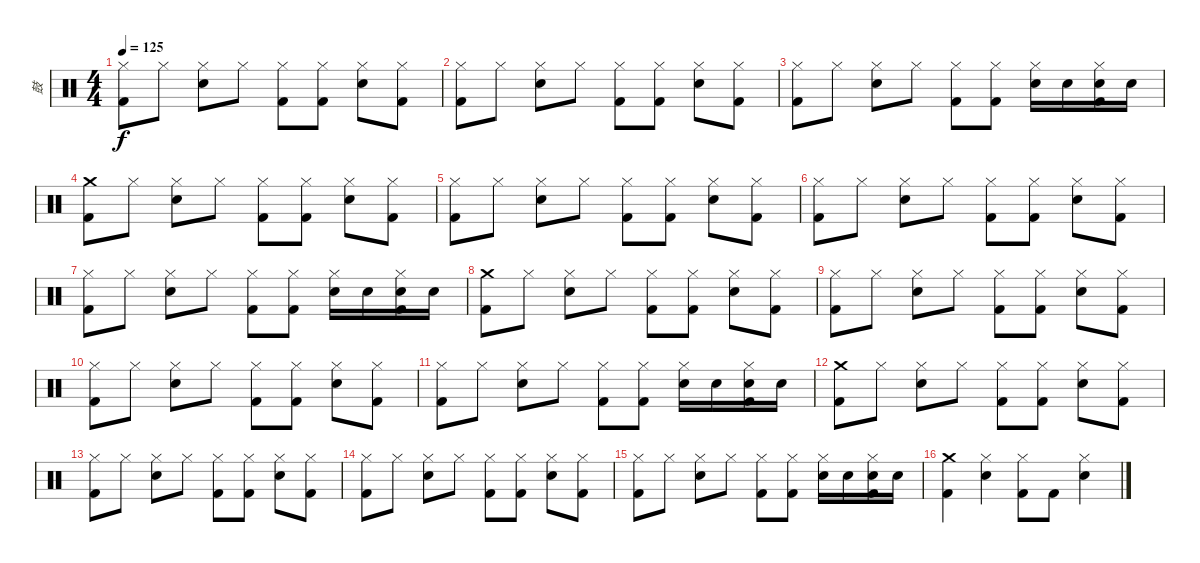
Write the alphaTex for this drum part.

\track ("鼓" "鼓") {instrument percussion}
\staff {score}
\articulation defaults
\ts (4 4)
\tempo 125
\clef neutral
\ks c
("Hi-Hat (closed)" "Kick (hit) 2").8{dy f} "Hi-Hat (closed)".8 ("Hi-Hat (closed)" "Electric Snare (hit)").8 "Hi-Hat (closed)".8 ("Hi-Hat (closed)" "Kick (hit) 2").8 ("Hi-Hat (closed)" "Kick (hit) 2").8 ("Hi-Hat (closed)" "Electric Snare (hit)").8 ("Hi-Hat (closed)" "Kick (hit) 2").8 |
("Hi-Hat (closed)" "Kick (hit) 2").8 "Hi-Hat (closed)".8 ("Hi-Hat (closed)" "Electric Snare (hit)").8 "Hi-Hat (closed)".8 ("Hi-Hat (closed)" "Kick (hit) 2").8 ("Hi-Hat (closed)" "Kick (hit) 2").8 ("Hi-Hat (closed)" "Electric Snare (hit)").8 ("Hi-Hat (closed)" "Kick (hit) 2").8 |
("Hi-Hat (closed)" "Kick (hit) 2").8 "Hi-Hat (closed)".8 ("Hi-Hat (closed)" "Electric Snare (hit)").8 "Hi-Hat (closed)".8 ("Hi-Hat (closed)" "Kick (hit) 2").8 ("Hi-Hat (closed)" "Kick (hit) 2").8 ("Hi-Hat (closed)" "Electric Snare (hit)").16 "Electric Snare (hit)".16 ("Hi-Hat (closed)" "Electric Snare (hit)" "Kick (hit) 2").16 "Electric Snare (hit)".16 |
("Crash medium (hit)" "Kick (hit) 2").8 "Hi-Hat (closed)".8 ("Hi-Hat (closed)" "Electric Snare (hit)").8 "Hi-Hat (closed)".8 ("Hi-Hat (closed)" "Kick (hit) 2").8 ("Hi-Hat (closed)" "Kick (hit) 2").8 ("Hi-Hat (closed)" "Electric Snare (hit)").8 ("Hi-Hat (closed)" "Kick (hit) 2").8 |
("Hi-Hat (closed)" "Kick (hit) 2").8 "Hi-Hat (closed)".8 ("Hi-Hat (closed)" "Electric Snare (hit)").8 "Hi-Hat (closed)".8 ("Hi-Hat (closed)" "Kick (hit) 2").8 ("Hi-Hat (closed)" "Kick (hit) 2").8 ("Hi-Hat (closed)" "Electric Snare (hit)").8 ("Hi-Hat (closed)" "Kick (hit) 2").8 |
("Hi-Hat (closed)" "Kick (hit) 2").8 "Hi-Hat (closed)".8 ("Hi-Hat (closed)" "Electric Snare (hit)").8 "Hi-Hat (closed)".8 ("Hi-Hat (closed)" "Kick (hit) 2").8 ("Hi-Hat (closed)" "Kick (hit) 2").8 ("Hi-Hat (closed)" "Electric Snare (hit)").8 ("Hi-Hat (closed)" "Kick (hit) 2").8 |
("Hi-Hat (closed)" "Kick (hit) 2").8 "Hi-Hat (closed)".8 ("Hi-Hat (closed)" "Electric Snare (hit)").8 "Hi-Hat (closed)".8 ("Hi-Hat (closed)" "Kick (hit) 2").8 ("Hi-Hat (closed)" "Kick (hit) 2").8 ("Hi-Hat (closed)" "Electric Snare (hit)").16 "Electric Snare (hit)".16 ("Hi-Hat (closed)" "Electric Snare (hit)" "Kick (hit) 2").16 "Electric Snare (hit)".16 |
("Crash medium (hit)" "Kick (hit) 2").8 "Hi-Hat (closed)".8 ("Hi-Hat (closed)" "Electric Snare (hit)").8 "Hi-Hat (closed)".8 ("Hi-Hat (closed)" "Kick (hit) 2").8 ("Hi-Hat (closed)" "Kick (hit) 2").8 ("Hi-Hat (closed)" "Electric Snare (hit)").8 ("Hi-Hat (closed)" "Kick (hit) 2").8 |
("Hi-Hat (closed)" "Kick (hit) 2").8 "Hi-Hat (closed)".8 ("Hi-Hat (closed)" "Electric Snare (hit)").8 "Hi-Hat (closed)".8 ("Hi-Hat (closed)" "Kick (hit) 2").8 ("Hi-Hat (closed)" "Kick (hit) 2").8 ("Hi-Hat (closed)" "Electric Snare (hit)").8 ("Hi-Hat (closed)" "Kick (hit) 2").8 |
("Hi-Hat (closed)" "Kick (hit) 2").8 "Hi-Hat (closed)".8 ("Hi-Hat (closed)" "Electric Snare (hit)").8 "Hi-Hat (closed)".8 ("Hi-Hat (closed)" "Kick (hit) 2").8 ("Hi-Hat (closed)" "Kick (hit) 2").8 ("Hi-Hat (closed)" "Electric Snare (hit)").8 ("Hi-Hat (closed)" "Kick (hit) 2").8 |
("Hi-Hat (closed)" "Kick (hit) 2").8 "Hi-Hat (closed)".8 ("Hi-Hat (closed)" "Electric Snare (hit)").8 "Hi-Hat (closed)".8 ("Hi-Hat (closed)" "Kick (hit) 2").8 ("Hi-Hat (closed)" "Kick (hit) 2").8 ("Hi-Hat (closed)" "Electric Snare (hit)").16 "Electric Snare (hit)".16 ("Hi-Hat (closed)" "Electric Snare (hit)" "Kick (hit) 2").16 "Electric Snare (hit)".16 |
("Crash medium (hit)" "Kick (hit) 2").8 "Hi-Hat (closed)".8 ("Hi-Hat (closed)" "Electric Snare (hit)").8 "Hi-Hat (closed)".8 ("Hi-Hat (closed)" "Kick (hit) 2").8 ("Hi-Hat (closed)" "Kick (hit) 2").8 ("Hi-Hat (closed)" "Electric Snare (hit)").8 ("Hi-Hat (closed)" "Kick (hit) 2").8 |
("Hi-Hat (closed)" "Kick (hit) 2").8 "Hi-Hat (closed)".8 ("Hi-Hat (closed)" "Electric Snare (hit)").8 "Hi-Hat (closed)".8 ("Hi-Hat (closed)" "Kick (hit) 2").8 ("Hi-Hat (closed)" "Kick (hit) 2").8 ("Hi-Hat (closed)" "Electric Snare (hit)").8 ("Hi-Hat (closed)" "Kick (hit) 2").8 |
("Hi-Hat (closed)" "Kick (hit) 2").8 "Hi-Hat (closed)".8 ("Hi-Hat (closed)" "Electric Snare (hit)").8 "Hi-Hat (closed)".8 ("Hi-Hat (closed)" "Kick (hit) 2").8 ("Hi-Hat (closed)" "Kick (hit) 2").8 ("Hi-Hat (closed)" "Electric Snare (hit)").8 ("Hi-Hat (closed)" "Kick (hit) 2").8 |
("Hi-Hat (closed)" "Kick (hit) 2").8 "Hi-Hat (closed)".8 ("Hi-Hat (closed)" "Electric Snare (hit)").8 "Hi-Hat (closed)".8 ("Hi-Hat (closed)" "Kick (hit) 2").8 ("Hi-Hat (closed)" "Kick (hit) 2").8 ("Hi-Hat (closed)" "Electric Snare (hit)").16 "Electric Snare (hit)".16 ("Hi-Hat (closed)" "Electric Snare (hit)" "Kick (hit) 2").16 "Electric Snare (hit)".16 |
("Crash medium (hit)" "Kick (hit) 2").4 ("Hi-Hat (closed)" "Electric Snare (hit)").4 ("Hi-Hat (closed)" "Kick (hit) 2").8 "Kick (hit) 2".8 ("Hi-Hat (closed)" "Electric Snare (hit)").4
